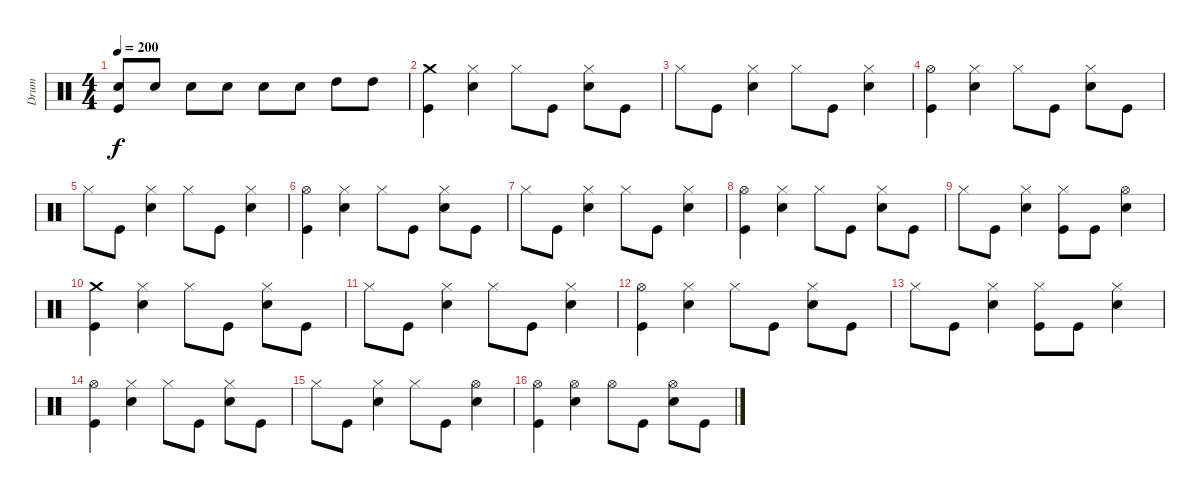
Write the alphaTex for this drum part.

\track ("Drum" "Drum") {instrument percussion}
\staff {score}
\articulation defaults
\ts (4 4)
\tempo 200
\clef neutral
\ks c
("Snare (hit) 2" "Kick (hit)").8{dy f} "Snare (hit) 2".8 "Snare (hit) 2".8 "Snare (hit) 2".8 "Snare (hit) 2".8 "Snare (hit) 2".8 "High Tom (hit)".8 "High Tom (hit)".8 |
("Crash medium (hit)" "Kick (hit)").4 ("Hi-Hat (closed)" "Snare (hit) 2").4 "Hi-Hat (closed)".8 "Kick (hit)".8 ("Hi-Hat (closed)" "Snare (hit) 2").8 "Kick (hit)".8 |
"Hi-Hat (closed)".8 "Kick (hit)".8 ("Hi-Hat (closed)" "Snare (hit) 2").4 "Hi-Hat (closed)".8 "Kick (hit)".8 ("Hi-Hat (closed)" "Snare (hit) 2").4 |
("Hi-Hat (open)" "Kick (hit)").4 ("Hi-Hat (closed)" "Snare (hit) 2").4 "Hi-Hat (closed)".8 "Kick (hit)".8 ("Hi-Hat (closed)" "Snare (hit) 2").8 "Kick (hit)".8 |
"Hi-Hat (closed)".8 "Kick (hit)".8 ("Hi-Hat (closed)" "Snare (hit) 2").4 "Hi-Hat (closed)".8 "Kick (hit)".8 ("Hi-Hat (closed)" "Snare (hit) 2").4 |
("Hi-Hat (open)" "Kick (hit)").4 ("Hi-Hat (closed)" "Snare (hit) 2").4 "Hi-Hat (closed)".8 "Kick (hit)".8 ("Hi-Hat (closed)" "Snare (hit) 2").8 "Kick (hit)".8 |
"Hi-Hat (closed)".8 "Kick (hit)".8 ("Hi-Hat (closed)" "Snare (hit) 2").4 "Hi-Hat (closed)".8 "Kick (hit)".8 ("Hi-Hat (closed)" "Snare (hit) 2").4 |
("Hi-Hat (open)" "Kick (hit)").4 ("Hi-Hat (closed)" "Snare (hit) 2").4 "Hi-Hat (closed)".8 "Kick (hit)".8 ("Hi-Hat (closed)" "Snare (hit) 2").8 "Kick (hit)".8 |
"Hi-Hat (closed)".8 "Kick (hit)".8 ("Hi-Hat (closed)" "Snare (hit) 2").4 ("Hi-Hat (closed)" "Kick (hit)").8 "Kick (hit)".8 ("Hi-Hat (open)" "Snare (hit) 2").4 |
("Crash medium (hit)" "Kick (hit)").4 ("Hi-Hat (closed)" "Snare (hit) 2").4 "Hi-Hat (closed)".8 "Kick (hit)".8 ("Hi-Hat (closed)" "Snare (hit) 2").8 "Kick (hit)".8 |
"Hi-Hat (closed)".8 "Kick (hit)".8 ("Hi-Hat (closed)" "Snare (hit) 2").4 "Hi-Hat (closed)".8 "Kick (hit)".8 ("Hi-Hat (closed)" "Snare (hit) 2").4 |
("Hi-Hat (open)" "Kick (hit)").4 ("Hi-Hat (closed)" "Snare (hit) 2").4 "Hi-Hat (closed)".8 "Kick (hit)".8 ("Hi-Hat (closed)" "Snare (hit) 2").8 "Kick (hit)".8 |
"Hi-Hat (closed)".8 "Kick (hit)".8 ("Hi-Hat (closed)" "Snare (hit) 2").4 ("Hi-Hat (closed)" "Kick (hit)").8 "Kick (hit)".8 ("Hi-Hat (closed)" "Snare (hit) 2").4 |
("Hi-Hat (open)" "Kick (hit)").4 ("Hi-Hat (closed)" "Snare (hit) 2").4 "Hi-Hat (closed)".8 "Kick (hit)".8 ("Hi-Hat (closed)" "Snare (hit) 2").8 "Kick (hit)".8 |
"Hi-Hat (closed)".8 "Kick (hit)".8 ("Hi-Hat (closed)" "Snare (hit) 2").4 "Hi-Hat (closed)".8 "Kick (hit)".8 ("Hi-Hat (open)" "Snare (hit) 2").4 |
("Hi-Hat (open)" "Kick (hit)").4 ("Hi-Hat (open)" "Snare (hit) 2").4 "Hi-Hat (open)".8 "Kick (hit)".8 ("Hi-Hat (open)" "Snare (hit) 2").8 "Kick (hit)".8
